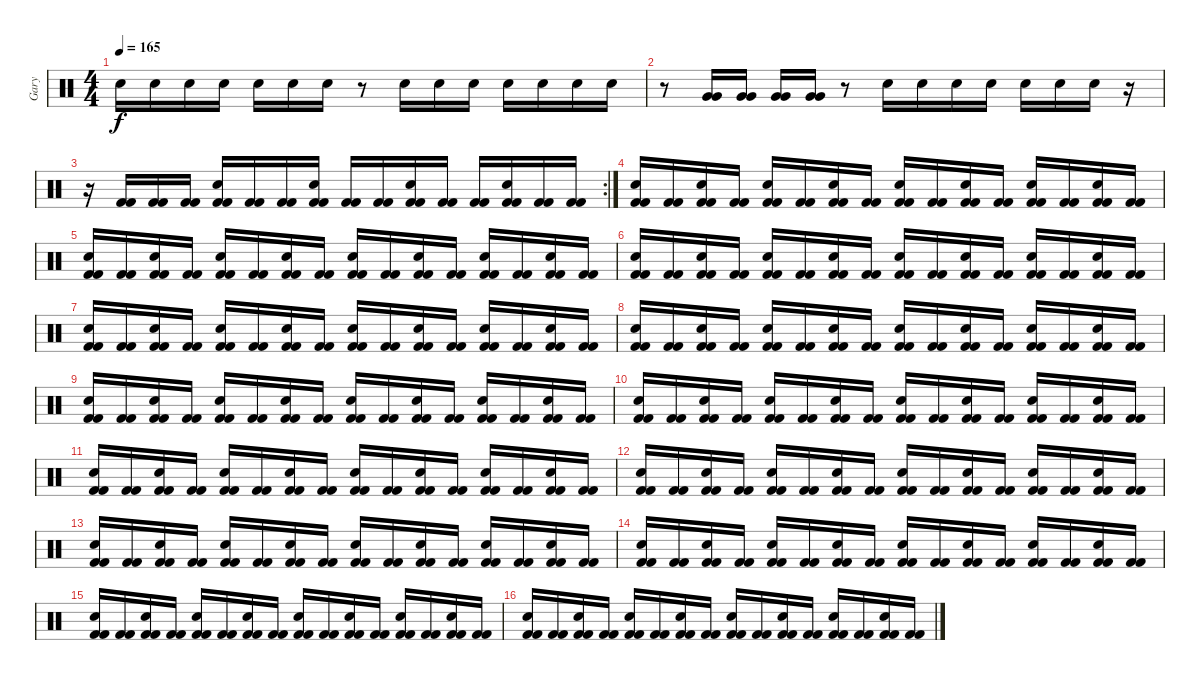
\track ("Gary" "Gary") {instrument percussion}
\staff {score}
\articulation defaults
\ts (4 4)
\tempo 165
\clef neutral
\ks c "Snare (hit) 2".16{dy f} "Snare (hit) 2".16 "Snare (hit) 2".16 "Snare (hit) 2".16 "Snare (hit) 2".16 "Snare (hit) 2".16 "Snare (hit) 2".16
r.8 "Snare (hit) 2".16 "Snare (hit) 2".16 "Snare (hit) 2".16 "Snare (hit) 2".16 "Snare (hit) 2".16 "Snare (hit) 2".16 "Snare (hit) 2".16 |
r.8 ("Very Low Tom (hit)" "Very Low Tom (hit)").16 ("Very Low Tom (hit)" "Very Low Tom (hit)").16 ("Very Low Tom (hit)" "Very Low Tom (hit)").16 ("Very Low Tom (hit)" "Very Low Tom (hit)").16 r.8 "Snare (hit) 2".16 "Snare (hit) 2".16 "Snare (hit) 2".16 "Snare (hit) 2".16 "Snare (hit) 2".16 "Snare (hit) 2".16 "Snare (hit) 2".16 r.16 |
\rc 2
r.16 ("Kick (hit) 2" "Kick (hit) 2").16 ("Kick (hit) 2" "Kick (hit) 2").16 ("Kick (hit) 2" "Kick (hit) 2").16 ("Kick (hit) 2" "Snare (hit) 2" "Kick (hit) 2").16 ("Kick (hit) 2" "Kick (hit) 2").16 ("Kick (hit) 2" "Kick (hit) 2").16 ("Kick (hit) 2" "Snare (hit) 2" "Kick (hit) 2").16 ("Kick (hit) 2" "Kick (hit) 2").16 ("Kick (hit) 2" "Kick (hit) 2").16 ("Kick (hit) 2" "Snare (hit) 2" "Kick (hit) 2").16 ("Kick (hit) 2" "Kick (hit) 2").16 ("Kick (hit) 2" "Kick (hit) 2").16 ("Kick (hit) 2" "Snare (hit) 2" "Kick (hit) 2").16 ("Kick (hit) 2" "Kick (hit) 2").16 ("Kick (hit) 2" "Kick (hit) 2").16 |
("Kick (hit) 2" "Snare (hit) 2" "Kick (hit) 2").16 ("Kick (hit) 2" "Kick (hit) 2").16 ("Kick (hit) 2" "Snare (hit) 2" "Kick (hit) 2").16 ("Kick (hit) 2" "Kick (hit) 2").16 ("Kick (hit) 2" "Snare (hit) 2" "Kick (hit) 2").16 ("Kick (hit) 2" "Kick (hit) 2").16 ("Kick (hit) 2" "Snare (hit) 2" "Kick (hit) 2").16 ("Kick (hit) 2" "Kick (hit) 2").16 ("Kick (hit) 2" "Snare (hit) 2" "Kick (hit) 2").16 ("Kick (hit) 2" "Kick (hit) 2").16 ("Kick (hit) 2" "Snare (hit) 2" "Kick (hit) 2").16 ("Kick (hit) 2" "Kick (hit) 2").16 ("Kick (hit) 2" "Snare (hit) 2" "Kick (hit) 2").16 ("Kick (hit) 2" "Kick (hit) 2").16 ("Kick (hit) 2" "Snare (hit) 2" "Kick (hit) 2").16 ("Kick (hit) 2" "Kick (hit) 2").16 |
("Kick (hit) 2" "Snare (hit) 2" "Kick (hit) 2").16 ("Kick (hit) 2" "Kick (hit) 2").16 ("Kick (hit) 2" "Snare (hit) 2" "Kick (hit) 2").16 ("Kick (hit) 2" "Kick (hit) 2").16 ("Kick (hit) 2" "Snare (hit) 2" "Kick (hit) 2").16 ("Kick (hit) 2" "Kick (hit) 2").16 ("Kick (hit) 2" "Snare (hit) 2" "Kick (hit) 2").16 ("Kick (hit) 2" "Kick (hit) 2").16 ("Kick (hit) 2" "Snare (hit) 2" "Kick (hit) 2").16 ("Kick (hit) 2" "Kick (hit) 2").16 ("Kick (hit) 2" "Snare (hit) 2" "Kick (hit) 2").16 ("Kick (hit) 2" "Kick (hit) 2").16 ("Kick (hit) 2" "Snare (hit) 2" "Kick (hit) 2").16 ("Kick (hit) 2" "Kick (hit) 2").16 ("Kick (hit) 2" "Snare (hit) 2" "Kick (hit) 2").16 ("Kick (hit) 2" "Kick (hit) 2").16 |
("Kick (hit) 2" "Snare (hit) 2" "Kick (hit) 2").16 ("Kick (hit) 2" "Kick (hit) 2").16 ("Kick (hit) 2" "Snare (hit) 2" "Kick (hit) 2").16 ("Kick (hit) 2" "Kick (hit) 2").16 ("Kick (hit) 2" "Snare (hit) 2" "Kick (hit) 2").16 ("Kick (hit) 2" "Kick (hit) 2").16 ("Kick (hit) 2" "Snare (hit) 2" "Kick (hit) 2").16 ("Kick (hit) 2" "Kick (hit) 2").16 ("Kick (hit) 2" "Snare (hit) 2" "Kick (hit) 2").16 ("Kick (hit) 2" "Kick (hit) 2").16 ("Kick (hit) 2" "Snare (hit) 2" "Kick (hit) 2").16 ("Kick (hit) 2" "Kick (hit) 2").16 ("Kick (hit) 2" "Snare (hit) 2" "Kick (hit) 2").16 ("Kick (hit) 2" "Kick (hit) 2").16 ("Kick (hit) 2" "Snare (hit) 2" "Kick (hit) 2").16 ("Kick (hit) 2" "Kick (hit) 2").16 |
("Kick (hit) 2" "Snare (hit) 2" "Kick (hit) 2").16 ("Kick (hit) 2" "Kick (hit) 2").16 ("Kick (hit) 2" "Snare (hit) 2" "Kick (hit) 2").16 ("Kick (hit) 2" "Kick (hit) 2").16 ("Kick (hit) 2" "Snare (hit) 2" "Kick (hit) 2").16 ("Kick (hit) 2" "Kick (hit) 2").16 ("Kick (hit) 2" "Snare (hit) 2" "Kick (hit) 2").16 ("Kick (hit) 2" "Kick (hit) 2").16 ("Kick (hit) 2" "Snare (hit) 2" "Kick (hit) 2").16 ("Kick (hit) 2" "Kick (hit) 2").16 ("Kick (hit) 2" "Snare (hit) 2" "Kick (hit) 2").16 ("Kick (hit) 2" "Kick (hit) 2").16 ("Kick (hit) 2" "Snare (hit) 2" "Kick (hit) 2").16 ("Kick (hit) 2" "Kick (hit) 2").16 ("Kick (hit) 2" "Snare (hit) 2" "Kick (hit) 2").16 ("Kick (hit) 2" "Kick (hit) 2").16 |
("Kick (hit) 2" "Snare (hit) 2" "Kick (hit) 2").16 ("Kick (hit) 2" "Kick (hit) 2").16 ("Kick (hit) 2" "Snare (hit) 2" "Kick (hit) 2").16 ("Kick (hit) 2" "Kick (hit) 2").16 ("Kick (hit) 2" "Snare (hit) 2" "Kick (hit) 2").16 ("Kick (hit) 2" "Kick (hit) 2").16 ("Kick (hit) 2" "Snare (hit) 2" "Kick (hit) 2").16 ("Kick (hit) 2" "Kick (hit) 2").16 ("Kick (hit) 2" "Snare (hit) 2" "Kick (hit) 2").16 ("Kick (hit) 2" "Kick (hit) 2").16 ("Kick (hit) 2" "Snare (hit) 2" "Kick (hit) 2").16 ("Kick (hit) 2" "Kick (hit) 2").16 ("Kick (hit) 2" "Snare (hit) 2" "Kick (hit) 2").16 ("Kick (hit) 2" "Kick (hit) 2").16 ("Kick (hit) 2" "Snare (hit) 2" "Kick (hit) 2").16 ("Kick (hit) 2" "Kick (hit) 2").16 |
("Kick (hit) 2" "Snare (hit) 2" "Kick (hit) 2").16 ("Kick (hit) 2" "Kick (hit) 2").16 ("Kick (hit) 2" "Snare (hit) 2" "Kick (hit) 2").16 ("Kick (hit) 2" "Kick (hit) 2").16 ("Kick (hit) 2" "Snare (hit) 2" "Kick (hit) 2").16 ("Kick (hit) 2" "Kick (hit) 2").16 ("Kick (hit) 2" "Snare (hit) 2" "Kick (hit) 2").16 ("Kick (hit) 2" "Kick (hit) 2").16 ("Kick (hit) 2" "Snare (hit) 2" "Kick (hit) 2").16 ("Kick (hit) 2" "Kick (hit) 2").16 ("Kick (hit) 2" "Snare (hit) 2" "Kick (hit) 2").16 ("Kick (hit) 2" "Kick (hit) 2").16 ("Kick (hit) 2" "Snare (hit) 2" "Kick (hit) 2").16 ("Kick (hit) 2" "Kick (hit) 2").16 ("Kick (hit) 2" "Snare (hit) 2" "Kick (hit) 2").16 ("Kick (hit) 2" "Kick (hit) 2").16 |
("Kick (hit) 2" "Snare (hit) 2" "Kick (hit) 2").16 ("Kick (hit) 2" "Kick (hit) 2").16 ("Kick (hit) 2" "Snare (hit) 2" "Kick (hit) 2").16 ("Kick (hit) 2" "Kick (hit) 2").16 ("Kick (hit) 2" "Snare (hit) 2" "Kick (hit) 2").16 ("Kick (hit) 2" "Kick (hit) 2").16 ("Kick (hit) 2" "Snare (hit) 2" "Kick (hit) 2").16 ("Kick (hit) 2" "Kick (hit) 2").16 ("Kick (hit) 2" "Snare (hit) 2" "Kick (hit) 2").16 ("Kick (hit) 2" "Kick (hit) 2").16 ("Kick (hit) 2" "Snare (hit) 2" "Kick (hit) 2").16 ("Kick (hit) 2" "Kick (hit) 2").16 ("Kick (hit) 2" "Snare (hit) 2" "Kick (hit) 2").16 ("Kick (hit) 2" "Kick (hit) 2").16 ("Kick (hit) 2" "Snare (hit) 2" "Kick (hit) 2").16 ("Kick (hit) 2" "Kick (hit) 2").16 |
("Kick (hit) 2" "Snare (hit) 2" "Kick (hit) 2").16 ("Kick (hit) 2" "Kick (hit) 2").16 ("Kick (hit) 2" "Snare (hit) 2" "Kick (hit) 2").16 ("Kick (hit) 2" "Kick (hit) 2").16 ("Kick (hit) 2" "Snare (hit) 2" "Kick (hit) 2").16 ("Kick (hit) 2" "Kick (hit) 2").16 ("Kick (hit) 2" "Snare (hit) 2" "Kick (hit) 2").16 ("Kick (hit) 2" "Kick (hit) 2").16 ("Kick (hit) 2" "Snare (hit) 2" "Kick (hit) 2").16 ("Kick (hit) 2" "Kick (hit) 2").16 ("Kick (hit) 2" "Snare (hit) 2" "Kick (hit) 2").16 ("Kick (hit) 2" "Kick (hit) 2").16 ("Kick (hit) 2" "Snare (hit) 2" "Kick (hit) 2").16 ("Kick (hit) 2" "Kick (hit) 2").16 ("Kick (hit) 2" "Snare (hit) 2" "Kick (hit) 2").16 ("Kick (hit) 2" "Kick (hit) 2").16 |
("Kick (hit) 2" "Snare (hit) 2" "Kick (hit) 2").16 ("Kick (hit) 2" "Kick (hit) 2").16 ("Kick (hit) 2" "Snare (hit) 2" "Kick (hit) 2").16 ("Kick (hit) 2" "Kick (hit) 2").16 ("Kick (hit) 2" "Snare (hit) 2" "Kick (hit) 2").16 ("Kick (hit) 2" "Kick (hit) 2").16 ("Kick (hit) 2" "Snare (hit) 2" "Kick (hit) 2").16 ("Kick (hit) 2" "Kick (hit) 2").16 ("Kick (hit) 2" "Snare (hit) 2" "Kick (hit) 2").16 ("Kick (hit) 2" "Kick (hit) 2").16 ("Kick (hit) 2" "Snare (hit) 2" "Kick (hit) 2").16 ("Kick (hit) 2" "Kick (hit) 2").16 ("Kick (hit) 2" "Snare (hit) 2" "Kick (hit) 2").16 ("Kick (hit) 2" "Kick (hit) 2").16 ("Kick (hit) 2" "Snare (hit) 2" "Kick (hit) 2").16 ("Kick (hit) 2" "Kick (hit) 2").16 |
("Kick (hit) 2" "Snare (hit) 2" "Kick (hit) 2").16 ("Kick (hit) 2" "Kick (hit) 2").16 ("Kick (hit) 2" "Snare (hit) 2" "Kick (hit) 2").16 ("Kick (hit) 2" "Kick (hit) 2").16 ("Kick (hit) 2" "Snare (hit) 2" "Kick (hit) 2").16 ("Kick (hit) 2" "Kick (hit) 2").16 ("Kick (hit) 2" "Snare (hit) 2" "Kick (hit) 2").16 ("Kick (hit) 2" "Kick (hit) 2").16 ("Kick (hit) 2" "Snare (hit) 2" "Kick (hit) 2").16 ("Kick (hit) 2" "Kick (hit) 2").16 ("Kick (hit) 2" "Snare (hit) 2" "Kick (hit) 2").16 ("Kick (hit) 2" "Kick (hit) 2").16 ("Kick (hit) 2" "Snare (hit) 2" "Kick (hit) 2").16 ("Kick (hit) 2" "Kick (hit) 2").16 ("Kick (hit) 2" "Snare (hit) 2" "Kick (hit) 2").16 ("Kick (hit) 2" "Kick (hit) 2").16 |
("Kick (hit) 2" "Snare (hit) 2" "Kick (hit) 2").16 ("Kick (hit) 2" "Kick (hit) 2").16 ("Kick (hit) 2" "Snare (hit) 2" "Kick (hit) 2").16 ("Kick (hit) 2" "Kick (hit) 2").16 ("Kick (hit) 2" "Snare (hit) 2" "Kick (hit) 2").16 ("Kick (hit) 2" "Kick (hit) 2").16 ("Kick (hit) 2" "Snare (hit) 2" "Kick (hit) 2").16 ("Kick (hit) 2" "Kick (hit) 2").16 ("Kick (hit) 2" "Snare (hit) 2" "Kick (hit) 2").16 ("Kick (hit) 2" "Kick (hit) 2").16 ("Kick (hit) 2" "Snare (hit) 2" "Kick (hit) 2").16 ("Kick (hit) 2" "Kick (hit) 2").16 ("Kick (hit) 2" "Snare (hit) 2" "Kick (hit) 2").16 ("Kick (hit) 2" "Kick (hit) 2").16 ("Kick (hit) 2" "Snare (hit) 2" "Kick (hit) 2").16 ("Kick (hit) 2" "Kick (hit) 2").16 |
("Kick (hit) 2" "Snare (hit) 2" "Kick (hit) 2").16 ("Kick (hit) 2" "Kick (hit) 2").16 ("Kick (hit) 2" "Snare (hit) 2" "Kick (hit) 2").16 ("Kick (hit) 2" "Kick (hit) 2").16 ("Kick (hit) 2" "Snare (hit) 2" "Kick (hit) 2").16 ("Kick (hit) 2" "Kick (hit) 2").16 ("Kick (hit) 2" "Snare (hit) 2" "Kick (hit) 2").16 ("Kick (hit) 2" "Kick (hit) 2").16 ("Kick (hit) 2" "Snare (hit) 2" "Kick (hit) 2").16 ("Kick (hit) 2" "Kick (hit) 2").16 ("Kick (hit) 2" "Snare (hit) 2" "Kick (hit) 2").16 ("Kick (hit) 2" "Kick (hit) 2").16 ("Kick (hit) 2" "Snare (hit) 2" "Kick (hit) 2").16 ("Kick (hit) 2" "Kick (hit) 2").16 ("Kick (hit) 2" "Snare (hit) 2" "Kick (hit) 2").16 ("Kick (hit) 2" "Kick (hit) 2").16 |
("Kick (hit) 2" "Snare (hit) 2" "Kick (hit) 2").16 ("Kick (hit) 2" "Kick (hit) 2").16 ("Kick (hit) 2" "Snare (hit) 2" "Kick (hit) 2").16 ("Kick (hit) 2" "Kick (hit) 2").16 ("Kick (hit) 2" "Snare (hit) 2" "Kick (hit) 2").16 ("Kick (hit) 2" "Kick (hit) 2").16 ("Kick (hit) 2" "Snare (hit) 2" "Kick (hit) 2").16 ("Kick (hit) 2" "Kick (hit) 2").16 ("Kick (hit) 2" "Snare (hit) 2" "Kick (hit) 2").16 ("Kick (hit) 2" "Kick (hit) 2").16 ("Kick (hit) 2" "Snare (hit) 2" "Kick (hit) 2").16 ("Kick (hit) 2" "Kick (hit) 2").16 ("Kick (hit) 2" "Snare (hit) 2" "Kick (hit) 2").16 ("Kick (hit) 2" "Kick (hit) 2").16 ("Kick (hit) 2" "Snare (hit) 2" "Kick (hit) 2").16 ("Kick (hit) 2" "Kick (hit) 2").16
